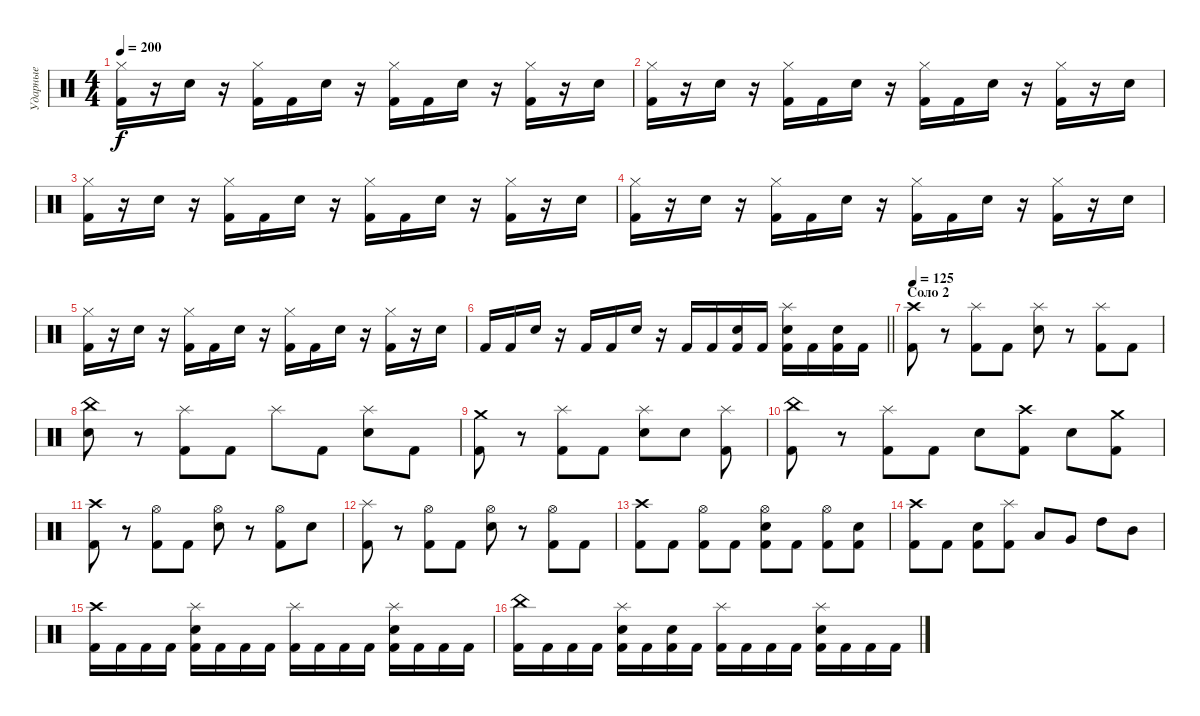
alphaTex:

\track ("Ударные" "Ударные") {instrument percussion}
\staff {score}
\articulation defaults
\ts (4 4)
\tempo 200
\clef neutral
\ks c
("Hi-Hat (closed)" "Kick (hit) 2").16{dy f} r.16 "Snare (hit) 2".16 r.16 ("Hi-Hat (closed)" "Kick (hit) 2").16 "Kick (hit) 2".16 "Snare (hit) 2".16 r.16 ("Hi-Hat (closed)" "Kick (hit) 2").16 "Kick (hit) 2".16 "Snare (hit) 2".16 r.16 ("Hi-Hat (closed)" "Kick (hit) 2").16 r.16 "Snare (hit) 2".16 |
("Hi-Hat (closed)" "Kick (hit) 2").16 r.16 "Snare (hit) 2".16 r.16 ("Hi-Hat (closed)" "Kick (hit) 2").16 "Kick (hit) 2".16 "Snare (hit) 2".16 r.16 ("Hi-Hat (closed)" "Kick (hit) 2").16 "Kick (hit) 2".16 "Snare (hit) 2".16 r.16 ("Hi-Hat (closed)" "Kick (hit) 2").16 r.16 "Snare (hit) 2".16 |
("Hi-Hat (closed)" "Kick (hit) 2").16 r.16 "Snare (hit) 2".16 r.16 ("Hi-Hat (closed)" "Kick (hit) 2").16 "Kick (hit) 2".16 "Snare (hit) 2".16 r.16 ("Hi-Hat (closed)" "Kick (hit) 2").16 "Kick (hit) 2".16 "Snare (hit) 2".16 r.16 ("Hi-Hat (closed)" "Kick (hit) 2").16 r.16 "Snare (hit) 2".16 |
("Hi-Hat (closed)" "Kick (hit) 2").16 r.16 "Snare (hit) 2".16 r.16 ("Hi-Hat (closed)" "Kick (hit) 2").16 "Kick (hit) 2".16 "Snare (hit) 2".16 r.16 ("Hi-Hat (closed)" "Kick (hit) 2").16 "Kick (hit) 2".16 "Snare (hit) 2".16 r.16 ("Hi-Hat (closed)" "Kick (hit) 2").16 r.16 "Snare (hit) 2".16 |
("Hi-Hat (closed)" "Kick (hit) 2").16 r.16 "Snare (hit) 2".16 r.16 ("Hi-Hat (closed)" "Kick (hit) 2").16 "Kick (hit) 2".16 "Snare (hit) 2".16 r.16 ("Hi-Hat (closed)" "Kick (hit) 2").16 "Kick (hit) 2".16 "Snare (hit) 2".16 r.16 ("Hi-Hat (closed)" "Kick (hit) 2").16 r.16 "Snare (hit) 2".16 |
\barLineRight lightlight "Kick (hit) 2".16 "Kick (hit) 2".16 "Snare (hit) 2".16
r.16 "Kick (hit) 2".16 "Kick (hit) 2".16 "Snare (hit) 2".16 r.16 "Kick (hit) 2".16 "Kick (hit) 2".16 ("Snare (hit) 2" "Kick (hit) 2").16 "Kick (hit) 2".16 ("Splash (hit)" "Snare (hit) 2" "Kick (hit) 2").16 "Kick (hit) 2".16 ("Snare (hit) 2" "Kick (hit) 2").16 "Kick (hit) 2".16 |
\section ("" "Соло 2")
\tempo 125
("Crash high (hit)" "Kick (hit) 2").8 r.8 ("Splash (hit)" "Kick (hit) 2").8 "Kick (hit) 2".8 ("Splash (hit)" "Snare (hit) 2").8 r.8 ("Splash (hit)" "Kick (hit) 2").8 "Kick (hit) 2".8 |
("China (hit)" "Snare (hit) 2").8 r.8 ("Splash (hit)" "Kick (hit) 2").8 "Kick (hit) 2".8 "Splash (hit)".8 "Kick (hit) 2".8 ("Splash (hit)" "Snare (hit) 2").8 "Kick (hit) 2".8 |
("Crash medium (hit)" "Kick (hit) 2").8 r.8 ("Splash (hit)" "Kick (hit) 2").8 "Kick (hit) 2".8 ("Splash (hit)" "Snare (hit) 2").8 "Snare (hit) 2".8 ("Splash (hit)" "Kick (hit) 2").8 |
("China (hit)" "Kick (hit) 2").8 r.8 ("Splash (hit)" "Kick (hit) 2").8 "Kick (hit) 2".8 "Snare (hit) 2".8 ("Crash high (hit)" "Kick (hit) 2").8 "Snare (hit) 2".8 ("Crash medium (hit)" "Kick (hit) 2").8 |
("Crash high (hit)" "Kick (hit) 2").8 r.8 ("Hi-Hat (open)" "Kick (hit) 2").8 "Kick (hit) 2".8 ("Hi-Hat (open)" "Snare (hit) 2").8 r.8 ("Hi-Hat (open)" "Kick (hit) 2").8 "Snare (hit) 2".8 |
("Splash (hit)" "Kick (hit) 2").8 r.8 ("Hi-Hat (open)" "Kick (hit) 2").8 "Kick (hit) 2".8 ("Hi-Hat (open)" "Snare (hit) 2").8 r.8 ("Hi-Hat (open)" "Kick (hit) 2").8 "Kick (hit) 2".8 |
("Crash high (hit)" "Kick (hit) 2").8 "Kick (hit) 2".8 ("Hi-Hat (open)" "Kick (hit) 2").8 "Kick (hit) 2".8 ("Hi-Hat (open)" "Snare (hit) 2" "Kick (hit) 2").8 "Kick (hit) 2".8 ("Hi-Hat (open)" "Kick (hit) 2").8 ("Snare (hit) 2" "Kick (hit) 2").8 |
("Crash high (hit)" "Kick (hit) 2").8 "Kick (hit) 2".8 ("Snare (hit) 2" "Kick (hit) 2").8 ("Splash (hit)" "Kick (hit) 2").8 "Low Tom (hit)".8 "Very Low Tom (hit)".8 "High Tom (hit)".8 "Mid Tom (hit)".8 |
("Crash high (hit)" "Kick (hit) 2").16 "Kick (hit) 2".16 "Kick (hit) 2".16 "Kick (hit) 2".16 ("Splash (hit)" "Snare (hit) 2" "Kick (hit) 2").16 "Kick (hit) 2".16 "Kick (hit) 2".16 "Kick (hit) 2".16 ("Splash (hit)" "Kick (hit) 2").16 "Kick (hit) 2".16 "Kick (hit) 2".16 "Kick (hit) 2".16 ("Splash (hit)" "Snare (hit) 2" "Kick (hit) 2").16 "Kick (hit) 2".16 "Kick (hit) 2".16 "Kick (hit) 2".16 |
("China (hit)" "Kick (hit) 2").16 "Kick (hit) 2".16 "Kick (hit) 2".16 "Kick (hit) 2".16 ("Splash (hit)" "Snare (hit) 2" "Kick (hit) 2").16 "Kick (hit) 2".16 ("Snare (hit) 2" "Kick (hit) 2").16 "Kick (hit) 2".16 ("Splash (hit)" "Kick (hit) 2").16 "Kick (hit) 2".16 "Kick (hit) 2".16 "Kick (hit) 2".16 ("Splash (hit)" "Snare (hit) 2" "Kick (hit) 2").16 "Kick (hit) 2".16 "Kick (hit) 2".16 "Kick (hit) 2".16
